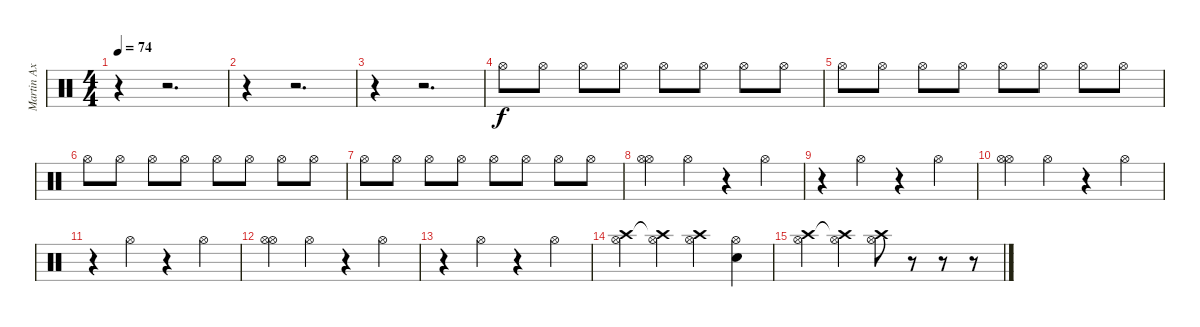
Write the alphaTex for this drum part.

\track (" Martin Axenrot - Cymbals" " Martin Ax") {instrument percussion}
\staff {score}
\articulation defaults
\ts (4 4)
\tempo 74
\clef neutral
\ks c
r.4{dy f} r.2{d} |
r.4 r.2{d} |
r.4 r.2{d} |
"Hi-Hat (open)".8 "Hi-Hat (open)".8 "Hi-Hat (open)".8 "Hi-Hat (open)".8 "Hi-Hat (open)".8 "Hi-Hat (open)".8 "Hi-Hat (open)".8 "Hi-Hat (open)".8 |
"Hi-Hat (open)".8 "Hi-Hat (open)".8 "Hi-Hat (open)".8 "Hi-Hat (open)".8 "Hi-Hat (open)".8 "Hi-Hat (open)".8 "Hi-Hat (open)".8 "Hi-Hat (open)".8 |
"Hi-Hat (open)".8 "Hi-Hat (open)".8 "Hi-Hat (open)".8 "Hi-Hat (open)".8 "Hi-Hat (open)".8 "Hi-Hat (open)".8 "Hi-Hat (open)".8 "Hi-Hat (open)".8 |
"Hi-Hat (open)".8 "Hi-Hat (open)".8 "Hi-Hat (open)".8 "Hi-Hat (open)".8 "Hi-Hat (open)".8 "Hi-Hat (open)".8 "Hi-Hat (open)".8 "Hi-Hat (open)".8 |
("Hi-Hat (open)" "Hi-Hat (open)").4 "Hi-Hat (open)".4 r.4 "Hi-Hat (open)".4 |
r.4 "Hi-Hat (open)".4 r.4 "Hi-Hat (open)".4 |
("Hi-Hat (open)" "Hi-Hat (open)").4 "Hi-Hat (open)".4 r.4 "Hi-Hat (open)".4 |
r.4 "Hi-Hat (open)".4 r.4 "Hi-Hat (open)".4 |
("Hi-Hat (open)" "Hi-Hat (open)").4 "Hi-Hat (open)".4 r.4 "Hi-Hat (open)".4 |
r.4 "Hi-Hat (open)".4 r.4 "Hi-Hat (open)".4 |
("Crash high (hit)" "Hi-Hat (open)").4 ("Crash high (hit)"{t} "Hi-Hat (open)").4 ("Crash high (hit)" "Hi-Hat (open)").4 ("Snare (hit)" "Hi-Hat (open)").4 |
("Crash high (hit)" "Hi-Hat (open)").4 ("Crash high (hit)"{t} "Hi-Hat (open)").4 ("Crash high (hit)" "Hi-Hat (open)").8 r.8 r.8 r.8
